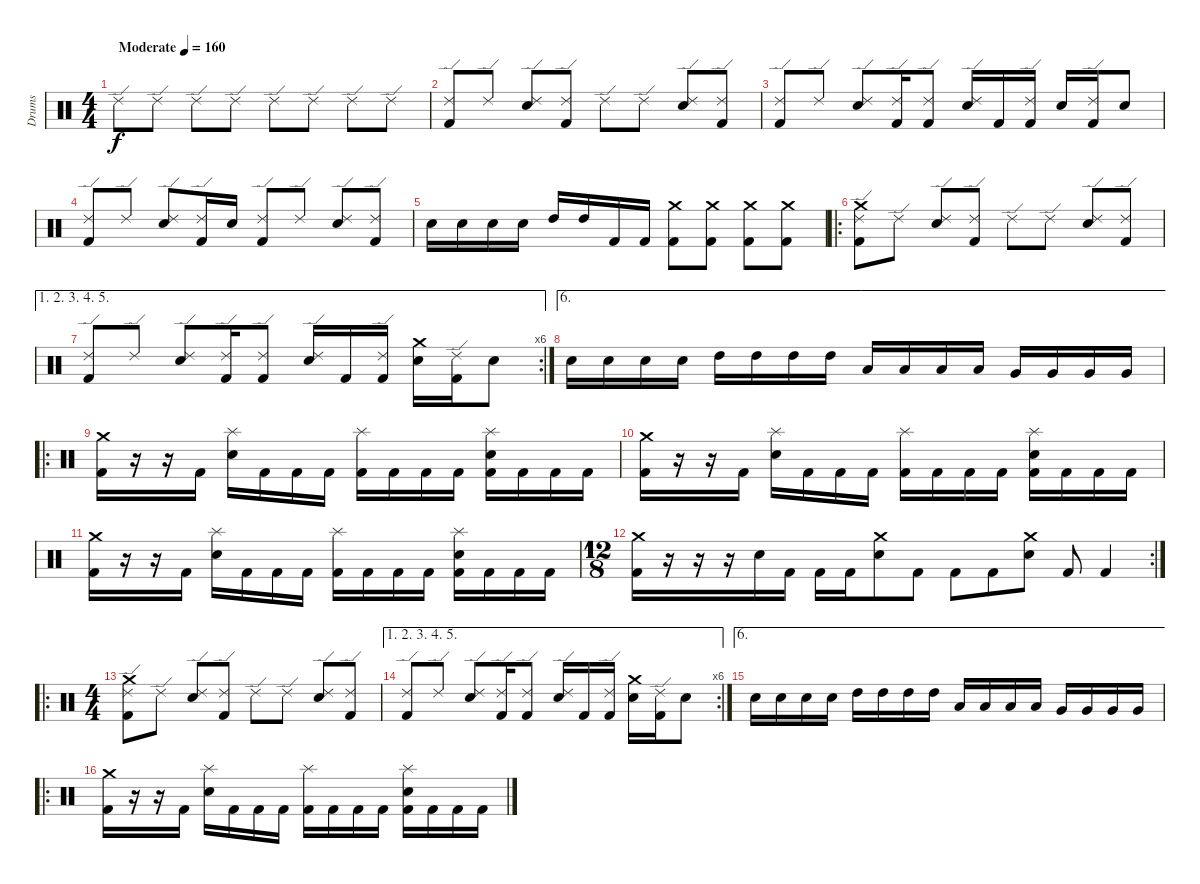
\track ("Drums" "Drums") {instrument percussion}
\staff {score}
\articulation defaults
\ts (4 4)
\tempo (160 "Moderate")
\clef neutral
\ks c "Ride (edge) 2".8{dy f} "Ride (edge) 2".8 "Ride (edge) 2".8 "Ride (edge) 2".8 "Ride (edge) 2".8 "Ride (edge) 2".8 "Ride (edge) 2".8 "Ride (edge) 2".8
|
("Ride (edge) 2" "Kick (hit) 2").8 "Ride (edge) 2".8 ("Ride (edge) 2" "Electric Snare (hit)").8 ("Ride (edge) 2" "Kick (hit) 2").8 "Ride (edge) 2".8 "Ride (edge) 2".8 ("Ride (edge) 2" "Electric Snare (hit)").8 ("Ride (edge) 2" "Kick (hit) 2").8 |
("Ride (edge) 2" "Kick (hit) 2").8 "Ride (edge) 2".8 ("Ride (edge) 2" "Electric Snare (hit)").8 ("Ride (edge) 2" "Kick (hit) 2").16 ("Ride (edge) 2" "Kick (hit) 2").8 ("Ride (edge) 2" "Electric Snare (hit)").16 "Kick (hit) 2".16 ("Ride (edge) 2" "Kick (hit) 2").16 "Electric Snare (hit)".16 ("Ride (edge) 2" "Kick (hit) 2").16 "Electric Snare (hit)".8 |
("Ride (edge) 2" "Kick (hit) 2").8 "Ride (edge) 2".8 ("Ride (edge) 2" "Electric Snare (hit)").8 ("Ride (edge) 2" "Kick (hit) 2").16 "Electric Snare (hit)".16 ("Ride (edge) 2" "Kick (hit) 2").8 "Ride (edge) 2".8 ("Ride (edge) 2" "Electric Snare (hit)").8 ("Ride (edge) 2" "Kick (hit) 2").8 |
"Electric Snare (hit)".16 "Electric Snare (hit)".16 "Electric Snare (hit)".16 "Electric Snare (hit)".16 "High Tom (hit)".16 "High Tom (hit)".16 "Kick (hit) 2".16 "Kick (hit) 2".16 ("Crash medium (hit)" "Kick (hit) 2").8 ("Crash medium (hit)" "Kick (hit) 2").8 ("Crash medium (hit)" "Kick (hit) 2").8 ("Crash medium (hit)" "Kick (hit) 2").8 |
\ro
("Crash medium (hit)" "Ride (edge) 2" "Kick (hit) 2").8 "Ride (edge) 2".8 ("Ride (edge) 2" "Electric Snare (hit)").8 ("Ride (edge) 2" "Kick (hit) 2").8 "Ride (edge) 2".8 "Ride (edge) 2".8 ("Ride (edge) 2" "Electric Snare (hit)").8 ("Ride (edge) 2" "Kick (hit) 2").8 |
\ae (1 2 3 4 5)
\rc 6
("Ride (edge) 2" "Kick (hit) 2").8 "Ride (edge) 2".8 ("Ride (edge) 2" "Electric Snare (hit)").8 ("Ride (edge) 2" "Kick (hit) 2").16 ("Ride (edge) 2" "Kick (hit) 2").8 ("Ride (edge) 2" "Electric Snare (hit)").16 "Kick (hit) 2".16 ("Ride (edge) 2" "Kick (hit) 2").16 ("Crash medium (hit)" "Electric Snare (hit)").16 ("Ride (edge) 2" "Kick (hit) 2").16 "Electric Snare (hit)".8 |
\ae 6 "Electric Snare (hit)".16 "Electric Snare (hit)".16 "Electric Snare (hit)".16 "Electric Snare (hit)".16 "High Tom (hit)".16 "High Tom (hit)".16 "High Tom (hit)".16 "High Tom (hit)".16 "Low Tom (hit)".16 "Low Tom (hit)".16 "Low Tom (hit)".16 "Low Tom (hit)".16 "Very Low Tom (hit)".16 "Very Low Tom (hit)".16 "Very Low Tom (hit)".16 "Very Low Tom (hit)".16
|
\ro
("Crash medium (hit)" "Kick (hit) 2").16 r.16 r.16 "Kick (hit) 2".16 ("Splash (hit)" "Electric Snare (hit)").16 "Kick (hit) 2".16 "Kick (hit) 2".16 "Kick (hit) 2".16 ("Splash (hit)" "Kick (hit) 2").16 "Kick (hit) 2".16 "Kick (hit) 2".16 "Kick (hit) 2".16 ("Splash (hit)" "Electric Snare (hit)" "Kick (hit) 2").16 "Kick (hit) 2".16 "Kick (hit) 2".16 "Kick (hit) 2".16 |
("Crash medium (hit)" "Kick (hit) 2").16 r.16 r.16 "Kick (hit) 2".16 ("Splash (hit)" "Electric Snare (hit)").16 "Kick (hit) 2".16 "Kick (hit) 2".16 "Kick (hit) 2".16 ("Splash (hit)" "Kick (hit) 2").16 "Kick (hit) 2".16 "Kick (hit) 2".16 "Kick (hit) 2".16 ("Splash (hit)" "Electric Snare (hit)" "Kick (hit) 2").16 "Kick (hit) 2".16 "Kick (hit) 2".16 "Kick (hit) 2".16 |
("Crash medium (hit)" "Kick (hit) 2").16 r.16 r.16 "Kick (hit) 2".16 ("Splash (hit)" "Electric Snare (hit)").16 "Kick (hit) 2".16 "Kick (hit) 2".16 "Kick (hit) 2".16 ("Splash (hit)" "Kick (hit) 2").16 "Kick (hit) 2".16 "Kick (hit) 2".16 "Kick (hit) 2".16 ("Splash (hit)" "Electric Snare (hit)" "Kick (hit) 2").16 "Kick (hit) 2".16 "Kick (hit) 2".16 "Kick (hit) 2".16 |
\rc 2
\ts (12 8)
("Crash medium (hit)" "Kick (hit) 2").16 r.16 r.16 r.16 "Electric Snare (hit)".16 "Kick (hit) 2".16 "Kick (hit) 2".16 "Kick (hit) 2".16 ("Crash medium (hit)" "Electric Snare (hit)").8 "Kick (hit) 2".8 "Kick (hit) 2".8 "Kick (hit) 2".8 ("Crash medium (hit)" "Electric Snare (hit)").8 "Kick (hit) 2".8 "Kick (hit) 2".4 |
\ro
\ts (4 4)
("Crash medium (hit)" "Ride (edge) 2" "Kick (hit) 2").8 "Ride (edge) 2".8 ("Ride (edge) 2" "Electric Snare (hit)").8 ("Ride (edge) 2" "Kick (hit) 2").8 "Ride (edge) 2".8 "Ride (edge) 2".8 ("Ride (edge) 2" "Electric Snare (hit)").8 ("Ride (edge) 2" "Kick (hit) 2").8 |
\ae (1 2 3 4 5)
\rc 6
("Ride (edge) 2" "Kick (hit) 2").8 "Ride (edge) 2".8 ("Ride (edge) 2" "Electric Snare (hit)").8 ("Ride (edge) 2" "Kick (hit) 2").16 ("Ride (edge) 2" "Kick (hit) 2").8 ("Ride (edge) 2" "Electric Snare (hit)").16 "Kick (hit) 2".16 ("Ride (edge) 2" "Kick (hit) 2").16 ("Crash medium (hit)" "Electric Snare (hit)").16 ("Ride (edge) 2" "Kick (hit) 2").16 "Electric Snare (hit)".8 |
\ae 6 "Electric Snare (hit)".16 "Electric Snare (hit)".16 "Electric Snare (hit)".16 "Electric Snare (hit)".16 "High Tom (hit)".16 "High Tom (hit)".16 "High Tom (hit)".16 "High Tom (hit)".16 "Low Tom (hit)".16 "Low Tom (hit)".16 "Low Tom (hit)".16 "Low Tom (hit)".16 "Very Low Tom (hit)".16 "Very Low Tom (hit)".16 "Very Low Tom (hit)".16 "Very Low Tom (hit)".16
|
\ro
("Crash medium (hit)" "Kick (hit) 2").16 r.16 r.16 "Kick (hit) 2".16 ("Splash (hit)" "Electric Snare (hit)").16 "Kick (hit) 2".16 "Kick (hit) 2".16 "Kick (hit) 2".16 ("Splash (hit)" "Kick (hit) 2").16 "Kick (hit) 2".16 "Kick (hit) 2".16 "Kick (hit) 2".16 ("Splash (hit)" "Electric Snare (hit)" "Kick (hit) 2").16 "Kick (hit) 2".16 "Kick (hit) 2".16 "Kick (hit) 2".16
